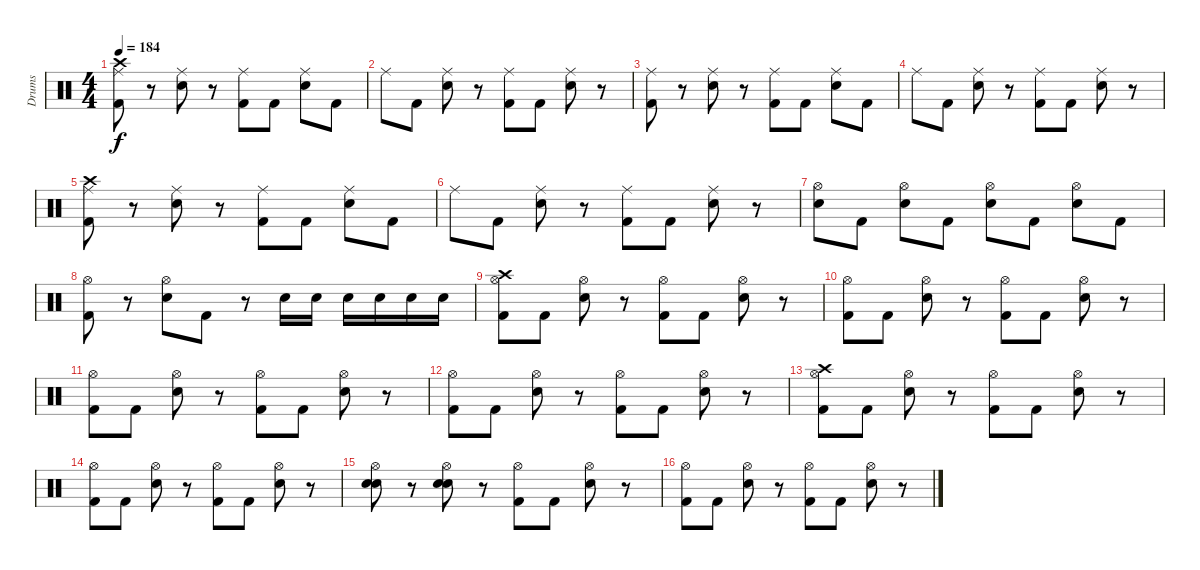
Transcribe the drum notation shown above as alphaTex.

\track ("Drums" "Drums") {instrument percussion}
\staff {score}
\articulation defaults
\ts (4 4)
\tempo 184
\clef neutral
\ks c
("Crash high (hit)" "Ride (middle)" "Kick (hit) 2").8{dy f} r.8 ("Ride (middle)" "Snare (hit) 2").8 r.8 ("Ride (middle)" "Kick (hit) 2").8 "Kick (hit) 2".8 ("Ride (middle)" "Snare (hit) 2").8 "Kick (hit) 2".8 |
"Ride (middle)".8 "Kick (hit) 2".8 ("Ride (middle)" "Snare (hit) 2").8 r.8 ("Ride (middle)" "Kick (hit) 2").8 "Kick (hit) 2".8 ("Ride (middle)" "Snare (hit) 2").8 r.8 |
("Ride (middle)" "Kick (hit) 2").8 r.8 ("Ride (middle)" "Snare (hit) 2").8 r.8 ("Ride (middle)" "Kick (hit) 2").8 "Kick (hit) 2".8 ("Ride (middle)" "Snare (hit) 2").8 "Kick (hit) 2".8 |
"Ride (middle)".8 "Kick (hit) 2".8 ("Ride (middle)" "Snare (hit) 2").8 r.8 ("Ride (middle)" "Kick (hit) 2").8 "Kick (hit) 2".8 ("Ride (middle)" "Snare (hit) 2").8 r.8 |
("Crash high (hit)" "Ride (middle)" "Kick (hit) 2").8 r.8 ("Ride (middle)" "Snare (hit) 2").8 r.8 ("Ride (middle)" "Kick (hit) 2").8 "Kick (hit) 2".8 ("Ride (middle)" "Snare (hit) 2").8 "Kick (hit) 2".8 |
"Ride (middle)".8 "Kick (hit) 2".8 ("Ride (middle)" "Snare (hit) 2").8 r.8 ("Ride (middle)" "Kick (hit) 2").8 "Kick (hit) 2".8 ("Ride (middle)" "Snare (hit) 2").8 r.8 |
("Hi-Hat (open)" "Snare (hit) 2").8 "Kick (hit) 2".8 ("Hi-Hat (open)" "Snare (hit) 2").8 "Kick (hit) 2".8 ("Hi-Hat (open)" "Snare (hit) 2").8 "Kick (hit) 2".8 ("Hi-Hat (open)" "Snare (hit) 2").8 "Kick (hit) 2".8 |
("Hi-Hat (open)" "Kick (hit) 2").8 r.8 ("Hi-Hat (open)" "Snare (hit) 2").8 "Kick (hit) 2".8 r.8 "Snare (hit) 2".16 "Snare (hit) 2".16 "Snare (hit) 2".16 "Snare (hit) 2".16 "Snare (hit) 2".16 "Snare (hit) 2".16 |
("Crash high (hit)" "Hi-Hat (open)" "Kick (hit) 2").8 "Kick (hit) 2".8 ("Hi-Hat (open)" "Snare (hit) 2").8 r.8 ("Hi-Hat (open)" "Kick (hit) 2").8 "Kick (hit) 2".8 ("Hi-Hat (open)" "Snare (hit) 2").8 r.8 |
("Hi-Hat (open)" "Kick (hit) 2").8 "Kick (hit) 2".8 ("Hi-Hat (open)" "Snare (hit) 2").8 r.8 ("Hi-Hat (open)" "Kick (hit) 2").8 "Kick (hit) 2".8 ("Hi-Hat (open)" "Snare (hit) 2").8 r.8 |
("Hi-Hat (open)" "Kick (hit) 2").8 "Kick (hit) 2".8 ("Hi-Hat (open)" "Snare (hit) 2").8 r.8 ("Hi-Hat (open)" "Kick (hit) 2").8 "Kick (hit) 2".8 ("Hi-Hat (open)" "Snare (hit) 2").8 r.8 |
("Hi-Hat (open)" "Kick (hit) 2").8 "Kick (hit) 2".8 ("Hi-Hat (open)" "Snare (hit) 2").8 r.8 ("Hi-Hat (open)" "Kick (hit) 2").8 "Kick (hit) 2".8 ("Hi-Hat (open)" "Snare (hit) 2").8 r.8 |
("Crash high (hit)" "Hi-Hat (open)" "Kick (hit) 2").8 "Kick (hit) 2".8 ("Hi-Hat (open)" "Snare (hit) 2").8 r.8 ("Hi-Hat (open)" "Kick (hit) 2").8 "Kick (hit) 2".8 ("Hi-Hat (open)" "Snare (hit) 2").8 r.8 |
("Hi-Hat (open)" "Kick (hit) 2").8 "Kick (hit) 2".8 ("Hi-Hat (open)" "Snare (hit) 2").8 r.8 ("Hi-Hat (open)" "Kick (hit) 2").8 "Kick (hit) 2".8 ("Hi-Hat (open)" "Snare (hit) 2").8 r.8 |
("Hi-Hat (open)" "Electric Snare (hit)" "Snare (hit) 2").8 r.8 ("Hi-Hat (open)" "Electric Snare (hit)" "Snare (hit) 2").8 r.8 ("Hi-Hat (open)" "Kick (hit) 2").8 "Kick (hit) 2".8 ("Hi-Hat (open)" "Snare (hit) 2").8 r.8 |
("Hi-Hat (open)" "Kick (hit) 2").8 "Kick (hit) 2".8 ("Hi-Hat (open)" "Snare (hit) 2").8 r.8 ("Hi-Hat (open)" "Kick (hit) 2").8 "Kick (hit) 2".8 ("Hi-Hat (open)" "Snare (hit) 2").8 r.8
